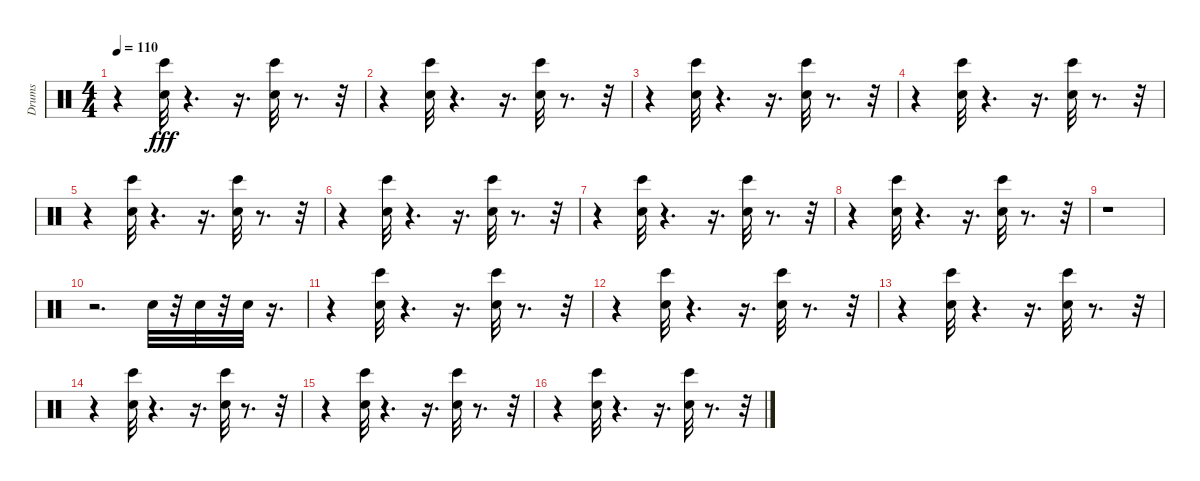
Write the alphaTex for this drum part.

\track ("Drums" "Drums") {instrument percussion}
\staff {score}
\articulation defaults
\ts (4 4)
\tempo 110
\clef neutral
\ks c
r.4{dy fff} ("Snare (hit) 2" "Bongo High (hit)").32 r.4{d} r.16{d} ("Snare (hit) 2" "Bongo High (hit)").32 r.8{d} r.32 |
r.4 ("Snare (hit) 2" "Bongo High (hit)").32 r.4{d} r.16{d} ("Snare (hit) 2" "Bongo High (hit)").32 r.8{d} r.32 |
r.4 ("Snare (hit) 2" "Bongo High (hit)").32 r.4{d} r.16{d} ("Snare (hit) 2" "Bongo High (hit)").32 r.8{d} r.32 |
r.4 ("Snare (hit) 2" "Bongo High (hit)").32 r.4{d} r.16{d} ("Snare (hit) 2" "Bongo High (hit)").32 r.8{d} r.32 |
r.4 ("Snare (hit) 2" "Bongo High (hit)").32 r.4{d} r.16{d} ("Snare (hit) 2" "Bongo High (hit)").32 r.8{d} r.32 |
r.4 ("Snare (hit) 2" "Bongo High (hit)").32 r.4{d} r.16{d} ("Snare (hit) 2" "Bongo High (hit)").32 r.8{d} r.32 |
r.4 ("Snare (hit) 2" "Bongo High (hit)").32 r.4{d} r.16{d} ("Snare (hit) 2" "Bongo High (hit)").32 r.8{d} r.32 |
r.4 ("Snare (hit) 2" "Bongo High (hit)").32 r.4{d} r.16{d} ("Snare (hit) 2" "Bongo High (hit)").32 r.8{d} r.32 |
r.1 |
r.2{d} "Electric Snare (hit)".32 r.32 "Electric Snare (hit)".32 r.32 "Electric Snare (hit)".32 r.16{d} |
r.4 ("Snare (hit) 2" "Bongo High (hit)").32 r.4{d} r.16{d} ("Snare (hit) 2" "Bongo High (hit)").32 r.8{d} r.32 |
r.4 ("Snare (hit) 2" "Bongo High (hit)").32 r.4{d} r.16{d} ("Snare (hit) 2" "Bongo High (hit)").32 r.8{d} r.32 |
r.4 ("Snare (hit) 2" "Bongo High (hit)").32 r.4{d} r.16{d} ("Snare (hit) 2" "Bongo High (hit)").32 r.8{d} r.32 |
r.4 ("Snare (hit) 2" "Bongo High (hit)").32 r.4{d} r.16{d} ("Snare (hit) 2" "Bongo High (hit)").32 r.8{d} r.32 |
r.4 ("Snare (hit) 2" "Bongo High (hit)").32 r.4{d} r.16{d} ("Snare (hit) 2" "Bongo High (hit)").32 r.8{d} r.32 |
r.4 ("Snare (hit) 2" "Bongo High (hit)").32 r.4{d} r.16{d} ("Snare (hit) 2" "Bongo High (hit)").32 r.8{d} r.32
